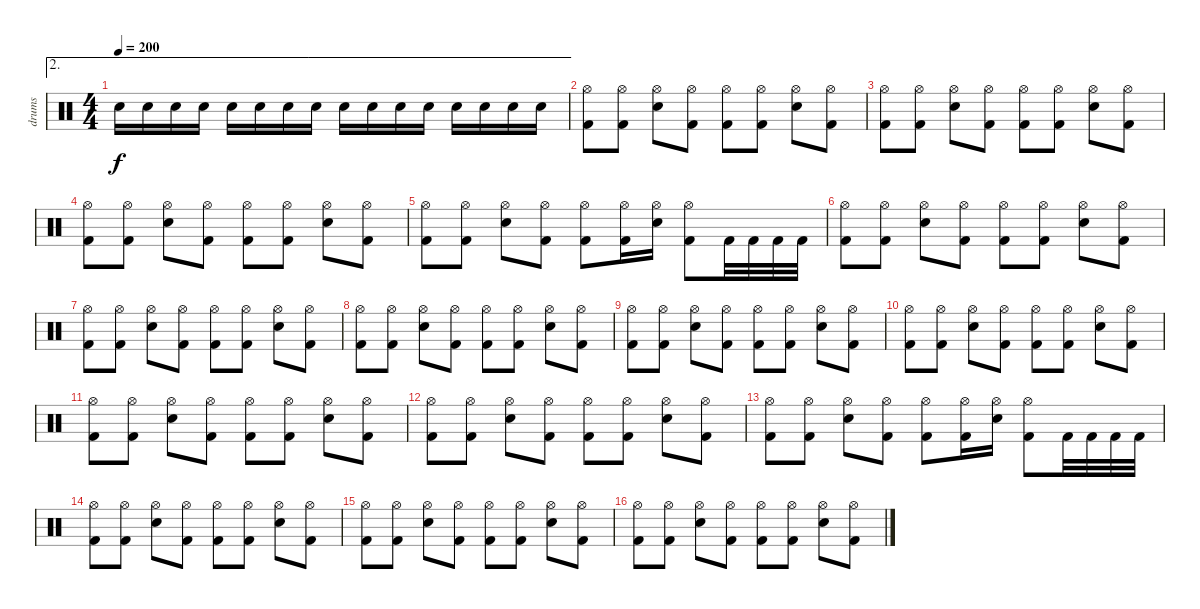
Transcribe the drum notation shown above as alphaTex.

\track ("drums" "drums") {instrument percussion}
\staff {score}
\articulation defaults
\ae 2
\ts (4 4)
\tempo 200
\clef neutral
\ks c "Electric Snare (hit)".16{dy f} "Electric Snare (hit)".16 "Electric Snare (hit)".16 "Electric Snare (hit)".16 "Electric Snare (hit)".16 "Electric Snare (hit)".16 "Electric Snare (hit)".16 "Electric Snare (hit)".16 "Electric Snare (hit)".16 "Electric Snare (hit)".16 "Electric Snare (hit)".16 "Electric Snare (hit)".16 "Electric Snare (hit)".16 "Electric Snare (hit)".16 "Electric Snare (hit)".16 "Electric Snare (hit)".16
|
("Hi-Hat (open)" "Kick (hit) 2").8 ("Hi-Hat (open)" "Kick (hit) 2").8 ("Hi-Hat (open)" "Electric Snare (hit)").8 ("Hi-Hat (open)" "Kick (hit) 2").8 ("Hi-Hat (open)" "Kick (hit) 2").8 ("Hi-Hat (open)" "Kick (hit) 2").8 ("Hi-Hat (open)" "Electric Snare (hit)").8 ("Hi-Hat (open)" "Kick (hit) 2").8 |
("Hi-Hat (open)" "Kick (hit) 2").8 ("Hi-Hat (open)" "Kick (hit) 2").8 ("Hi-Hat (open)" "Electric Snare (hit)").8 ("Hi-Hat (open)" "Kick (hit) 2").8 ("Hi-Hat (open)" "Kick (hit) 2").8 ("Hi-Hat (open)" "Kick (hit) 2").8 ("Hi-Hat (open)" "Electric Snare (hit)").8 ("Hi-Hat (open)" "Kick (hit) 2").8 |
("Hi-Hat (open)" "Kick (hit) 2").8 ("Hi-Hat (open)" "Kick (hit) 2").8 ("Hi-Hat (open)" "Electric Snare (hit)").8 ("Hi-Hat (open)" "Kick (hit) 2").8 ("Hi-Hat (open)" "Kick (hit) 2").8 ("Hi-Hat (open)" "Kick (hit) 2").8 ("Hi-Hat (open)" "Electric Snare (hit)").8 ("Hi-Hat (open)" "Kick (hit) 2").8 |
("Hi-Hat (open)" "Kick (hit) 2").8 ("Hi-Hat (open)" "Kick (hit) 2").8 ("Hi-Hat (open)" "Electric Snare (hit)").8 ("Hi-Hat (open)" "Kick (hit) 2").8 ("Hi-Hat (open)" "Kick (hit) 2").8 ("Hi-Hat (open)" "Kick (hit) 2").16 ("Hi-Hat (open)" "Electric Snare (hit)").16 ("Hi-Hat (open)" "Kick (hit) 2").8 "Kick (hit) 2".32 "Kick (hit) 2".32 "Kick (hit) 2".32 "Kick (hit) 2".32 |
("Hi-Hat (open)" "Kick (hit) 2").8 ("Hi-Hat (open)" "Kick (hit) 2").8 ("Hi-Hat (open)" "Electric Snare (hit)").8 ("Hi-Hat (open)" "Kick (hit) 2").8 ("Hi-Hat (open)" "Kick (hit) 2").8 ("Hi-Hat (open)" "Kick (hit) 2").8 ("Hi-Hat (open)" "Electric Snare (hit)").8 ("Hi-Hat (open)" "Kick (hit) 2").8 |
("Hi-Hat (open)" "Kick (hit) 2").8 ("Hi-Hat (open)" "Kick (hit) 2").8 ("Hi-Hat (open)" "Electric Snare (hit)").8 ("Hi-Hat (open)" "Kick (hit) 2").8 ("Hi-Hat (open)" "Kick (hit) 2").8 ("Hi-Hat (open)" "Kick (hit) 2").8 ("Hi-Hat (open)" "Electric Snare (hit)").8 ("Hi-Hat (open)" "Kick (hit) 2").8 |
("Hi-Hat (open)" "Kick (hit) 2").8 ("Hi-Hat (open)" "Kick (hit) 2").8 ("Hi-Hat (open)" "Electric Snare (hit)").8 ("Hi-Hat (open)" "Kick (hit) 2").8 ("Hi-Hat (open)" "Kick (hit) 2").8 ("Hi-Hat (open)" "Kick (hit) 2").8 ("Hi-Hat (open)" "Electric Snare (hit)").8 ("Hi-Hat (open)" "Kick (hit) 2").8 |
("Hi-Hat (open)" "Kick (hit) 2").8 ("Hi-Hat (open)" "Kick (hit) 2").8 ("Hi-Hat (open)" "Electric Snare (hit)").8 ("Hi-Hat (open)" "Kick (hit) 2").8 ("Hi-Hat (open)" "Kick (hit) 2").8 ("Hi-Hat (open)" "Kick (hit) 2").8 ("Hi-Hat (open)" "Electric Snare (hit)").8 ("Hi-Hat (open)" "Kick (hit) 2").8 |
("Hi-Hat (open)" "Kick (hit) 2").8 ("Hi-Hat (open)" "Kick (hit) 2").8 ("Hi-Hat (open)" "Electric Snare (hit)").8 ("Hi-Hat (open)" "Kick (hit) 2").8 ("Hi-Hat (open)" "Kick (hit) 2").8 ("Hi-Hat (open)" "Kick (hit) 2").8 ("Hi-Hat (open)" "Electric Snare (hit)").8 ("Hi-Hat (open)" "Kick (hit) 2").8 |
("Hi-Hat (open)" "Kick (hit) 2").8 ("Hi-Hat (open)" "Kick (hit) 2").8 ("Hi-Hat (open)" "Electric Snare (hit)").8 ("Hi-Hat (open)" "Kick (hit) 2").8 ("Hi-Hat (open)" "Kick (hit) 2").8 ("Hi-Hat (open)" "Kick (hit) 2").8 ("Hi-Hat (open)" "Electric Snare (hit)").8 ("Hi-Hat (open)" "Kick (hit) 2").8 |
("Hi-Hat (open)" "Kick (hit) 2").8 ("Hi-Hat (open)" "Kick (hit) 2").8 ("Hi-Hat (open)" "Electric Snare (hit)").8 ("Hi-Hat (open)" "Kick (hit) 2").8 ("Hi-Hat (open)" "Kick (hit) 2").8 ("Hi-Hat (open)" "Kick (hit) 2").8 ("Hi-Hat (open)" "Electric Snare (hit)").8 ("Hi-Hat (open)" "Kick (hit) 2").8 |
("Hi-Hat (open)" "Kick (hit) 2").8 ("Hi-Hat (open)" "Kick (hit) 2").8 ("Hi-Hat (open)" "Electric Snare (hit)").8 ("Hi-Hat (open)" "Kick (hit) 2").8 ("Hi-Hat (open)" "Kick (hit) 2").8 ("Hi-Hat (open)" "Kick (hit) 2").16 ("Hi-Hat (open)" "Electric Snare (hit)").16 ("Hi-Hat (open)" "Kick (hit) 2").8 "Kick (hit) 2".32 "Kick (hit) 2".32 "Kick (hit) 2".32 "Kick (hit) 2".32 |
("Hi-Hat (open)" "Kick (hit) 2").8 ("Hi-Hat (open)" "Kick (hit) 2").8 ("Hi-Hat (open)" "Electric Snare (hit)").8 ("Hi-Hat (open)" "Kick (hit) 2").8 ("Hi-Hat (open)" "Kick (hit) 2").8 ("Hi-Hat (open)" "Kick (hit) 2").8 ("Hi-Hat (open)" "Electric Snare (hit)").8 ("Hi-Hat (open)" "Kick (hit) 2").8 |
("Hi-Hat (open)" "Kick (hit) 2").8 ("Hi-Hat (open)" "Kick (hit) 2").8 ("Hi-Hat (open)" "Electric Snare (hit)").8 ("Hi-Hat (open)" "Kick (hit) 2").8 ("Hi-Hat (open)" "Kick (hit) 2").8 ("Hi-Hat (open)" "Kick (hit) 2").8 ("Hi-Hat (open)" "Electric Snare (hit)").8 ("Hi-Hat (open)" "Kick (hit) 2").8 |
("Hi-Hat (open)" "Kick (hit) 2").8 ("Hi-Hat (open)" "Kick (hit) 2").8 ("Hi-Hat (open)" "Electric Snare (hit)").8 ("Hi-Hat (open)" "Kick (hit) 2").8 ("Hi-Hat (open)" "Kick (hit) 2").8 ("Hi-Hat (open)" "Kick (hit) 2").8 ("Hi-Hat (open)" "Electric Snare (hit)").8 ("Hi-Hat (open)" "Kick (hit) 2").8
